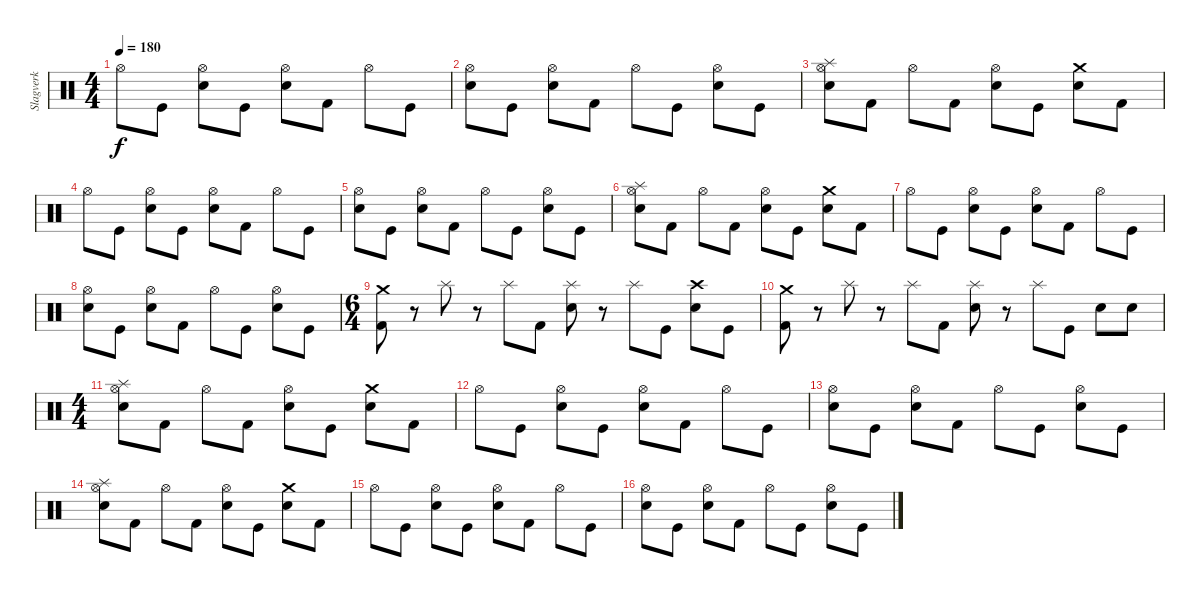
\track ("Slagverk" "Slagverk") {instrument percussion}
\staff {score}
\articulation defaults
\ts (4 4)
\tempo 180
\clef neutral
\ks c "Hi-Hat (open)".8{dy f} "Kick (hit)".8
("Hi-Hat (open)" "Electric Snare (hit)").8 "Kick (hit)".8 ("Hi-Hat (open)" "Electric Snare (hit)").8 "Kick (hit) 2".8 "Hi-Hat (open)".8 "Kick (hit)".8 |
("Hi-Hat (open)" "Electric Snare (hit)").8 "Kick (hit)".8 ("Hi-Hat (open)" "Electric Snare (hit)").8 "Kick (hit) 2".8 "Hi-Hat (open)".8 "Kick (hit)".8 ("Hi-Hat (open)" "Electric Snare (hit)").8 "Kick (hit)".8 |
("Splash (hit)" "Hi-Hat (open)" "Electric Snare (hit)").8 "Kick (hit) 2".8 "Hi-Hat (open)".8 "Kick (hit) 2".8 ("Hi-Hat (open)" "Electric Snare (hit)").8 "Kick (hit)".8 ("Crash medium (hit)" "Electric Snare (hit)").8 "Kick (hit) 2".8 |
"Hi-Hat (open)".8 "Kick (hit)".8 ("Hi-Hat (open)" "Electric Snare (hit)").8 "Kick (hit)".8 ("Hi-Hat (open)" "Electric Snare (hit)").8 "Kick (hit) 2".8 "Hi-Hat (open)".8 "Kick (hit)".8 |
("Hi-Hat (open)" "Electric Snare (hit)").8 "Kick (hit)".8 ("Hi-Hat (open)" "Electric Snare (hit)").8 "Kick (hit) 2".8 "Hi-Hat (open)".8 "Kick (hit)".8 ("Hi-Hat (open)" "Electric Snare (hit)").8 "Kick (hit)".8 |
("Splash (hit)" "Hi-Hat (open)" "Electric Snare (hit)").8 "Kick (hit) 2".8 "Hi-Hat (open)".8 "Kick (hit) 2".8 ("Hi-Hat (open)" "Electric Snare (hit)").8 "Kick (hit)".8 ("Crash medium (hit)" "Electric Snare (hit)").8 "Kick (hit) 2".8 |
"Hi-Hat (open)".8 "Kick (hit)".8 ("Hi-Hat (open)" "Electric Snare (hit)").8 "Kick (hit)".8 ("Hi-Hat (open)" "Electric Snare (hit)").8 "Kick (hit) 2".8 "Hi-Hat (open)".8 "Kick (hit)".8 |
("Hi-Hat (open)" "Electric Snare (hit)").8 "Kick (hit)".8 ("Hi-Hat (open)" "Electric Snare (hit)").8 "Kick (hit) 2".8 "Hi-Hat (open)".8 "Kick (hit)".8 ("Hi-Hat (open)" "Electric Snare (hit)").8 "Kick (hit)".8 |
\ts (6 4)
("Crash medium (hit)" "Kick (hit) 2").8 r.8 "Splash (hit)".8 r.8 "Splash (hit)".8 "Kick (hit) 2".8 ("Splash (hit)" "Electric Snare (hit)").8 r.8 "Splash (hit)".8 "Kick (hit)".8 ("Crash high (hit)" "Electric Snare (hit)").8 "Kick (hit)".8 |
("Crash medium (hit)" "Kick (hit) 2").8 r.8 "Splash (hit)".8 r.8 "Splash (hit)".8 "Kick (hit) 2".8 ("Splash (hit)" "Electric Snare (hit)").8 r.8 "Splash (hit)".8 "Kick (hit)".8 "Electric Snare (hit)".8 "Electric Snare (hit)".8 |
\ts (4 4)
("Splash (hit)" "Hi-Hat (open)" "Electric Snare (hit)").8 "Kick (hit) 2".8 "Hi-Hat (open)".8 "Kick (hit) 2".8 ("Hi-Hat (open)" "Electric Snare (hit)").8 "Kick (hit)".8 ("Crash medium (hit)" "Electric Snare (hit)").8 "Kick (hit) 2".8 |
"Hi-Hat (open)".8 "Kick (hit)".8 ("Hi-Hat (open)" "Electric Snare (hit)").8 "Kick (hit)".8 ("Hi-Hat (open)" "Electric Snare (hit)").8 "Kick (hit) 2".8 "Hi-Hat (open)".8 "Kick (hit)".8 |
("Hi-Hat (open)" "Electric Snare (hit)").8 "Kick (hit)".8 ("Hi-Hat (open)" "Electric Snare (hit)").8 "Kick (hit) 2".8 "Hi-Hat (open)".8 "Kick (hit)".8 ("Hi-Hat (open)" "Electric Snare (hit)").8 "Kick (hit)".8 |
("Splash (hit)" "Hi-Hat (open)" "Electric Snare (hit)").8 "Kick (hit) 2".8 "Hi-Hat (open)".8 "Kick (hit) 2".8 ("Hi-Hat (open)" "Electric Snare (hit)").8 "Kick (hit)".8 ("Crash medium (hit)" "Electric Snare (hit)").8 "Kick (hit) 2".8 |
"Hi-Hat (open)".8 "Kick (hit)".8 ("Hi-Hat (open)" "Electric Snare (hit)").8 "Kick (hit)".8 ("Hi-Hat (open)" "Electric Snare (hit)").8 "Kick (hit) 2".8 "Hi-Hat (open)".8 "Kick (hit)".8 |
("Hi-Hat (open)" "Electric Snare (hit)").8 "Kick (hit)".8 ("Hi-Hat (open)" "Electric Snare (hit)").8 "Kick (hit) 2".8 "Hi-Hat (open)".8 "Kick (hit)".8 ("Hi-Hat (open)" "Electric Snare (hit)").8 "Kick (hit)".8
